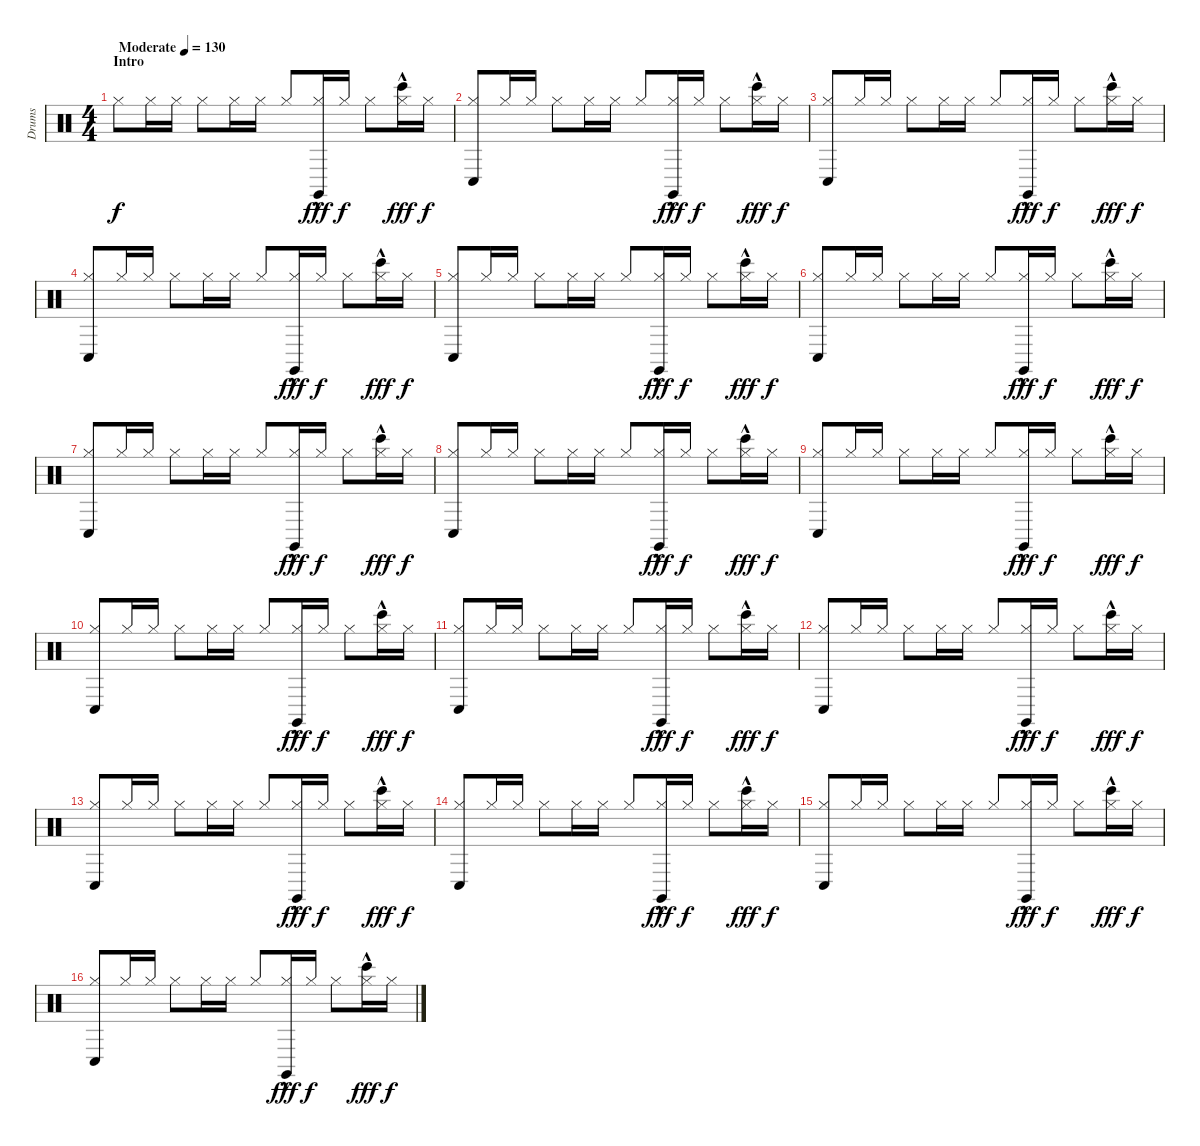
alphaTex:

\track ("Drums" "Drums") {instrument percussion}
\staff {score}
\articulation defaults
\ts (4 4)
\section ("" "Intro")
\tempo (130 "Moderate")
\clef neutral
\ks c "Hi-Hat (closed)".8{dy f volume 5} "Hi-Hat (closed)".16 "Hi-Hat (closed)".16 "Hi-Hat (closed)".8 "Hi-Hat (closed)".16 "Hi-Hat (closed)".16 "Hi-Hat (closed)".8
("Claves (hit)"{hac} "Hi-Hat (closed)").16{dy fff} "Hi-Hat (closed)".16{dy f} "Hi-Hat (closed)".8 ("Bongo High (hit)"{hac} "Hi-Hat (closed)").16{dy fff} "Hi-Hat (closed)".16{dy f} |
("Conga low (hit)" "Hi-Hat (closed)").8 "Hi-Hat (closed)".16 "Hi-Hat (closed)".16 "Hi-Hat (closed)".8 "Hi-Hat (closed)".16 "Hi-Hat (closed)".16 "Hi-Hat (closed)".8 ("Claves (hit)"{hac} "Hi-Hat (closed)").16{dy fff} "Hi-Hat (closed)".16{dy f} "Hi-Hat (closed)".8 ("Bongo High (hit)"{hac} "Hi-Hat (closed)").16{dy fff} "Hi-Hat (closed)".16{dy f} |
("Conga low (hit)" "Hi-Hat (closed)").8 "Hi-Hat (closed)".16 "Hi-Hat (closed)".16 "Hi-Hat (closed)".8 "Hi-Hat (closed)".16 "Hi-Hat (closed)".16 "Hi-Hat (closed)".8 ("Claves (hit)"{hac} "Hi-Hat (closed)").16{dy fff} "Hi-Hat (closed)".16{dy f} "Hi-Hat (closed)".8 ("Bongo High (hit)"{hac} "Hi-Hat (closed)").16{dy fff} "Hi-Hat (closed)".16{dy f} |
("Conga low (hit)" "Hi-Hat (closed)").8 "Hi-Hat (closed)".16 "Hi-Hat (closed)".16 "Hi-Hat (closed)".8 "Hi-Hat (closed)".16 "Hi-Hat (closed)".16 "Hi-Hat (closed)".8 ("Claves (hit)"{hac} "Hi-Hat (closed)").16{dy fff} "Hi-Hat (closed)".16{dy f} "Hi-Hat (closed)".8 ("Bongo High (hit)"{hac} "Hi-Hat (closed)").16{dy fff} "Hi-Hat (closed)".16{dy f} |
("Conga low (hit)" "Hi-Hat (closed)").8 "Hi-Hat (closed)".16 "Hi-Hat (closed)".16 "Hi-Hat (closed)".8 "Hi-Hat (closed)".16 "Hi-Hat (closed)".16 "Hi-Hat (closed)".8 ("Claves (hit)"{hac} "Hi-Hat (closed)").16{dy fff} "Hi-Hat (closed)".16{dy f} "Hi-Hat (closed)".8 ("Bongo High (hit)"{hac} "Hi-Hat (closed)").16{dy fff} "Hi-Hat (closed)".16{dy f} |
("Conga low (hit)" "Hi-Hat (closed)").8 "Hi-Hat (closed)".16 "Hi-Hat (closed)".16 "Hi-Hat (closed)".8 "Hi-Hat (closed)".16 "Hi-Hat (closed)".16 "Hi-Hat (closed)".8 ("Claves (hit)"{hac} "Hi-Hat (closed)").16{dy fff} "Hi-Hat (closed)".16{dy f} "Hi-Hat (closed)".8 ("Bongo High (hit)"{hac} "Hi-Hat (closed)").16{dy fff} "Hi-Hat (closed)".16{dy f} |
("Conga low (hit)" "Hi-Hat (closed)").8 "Hi-Hat (closed)".16 "Hi-Hat (closed)".16 "Hi-Hat (closed)".8 "Hi-Hat (closed)".16 "Hi-Hat (closed)".16 "Hi-Hat (closed)".8 ("Claves (hit)"{hac} "Hi-Hat (closed)").16{dy fff} "Hi-Hat (closed)".16{dy f} "Hi-Hat (closed)".8 ("Bongo High (hit)"{hac} "Hi-Hat (closed)").16{dy fff} "Hi-Hat (closed)".16{dy f} |
("Conga low (hit)" "Hi-Hat (closed)").8 "Hi-Hat (closed)".16 "Hi-Hat (closed)".16 "Hi-Hat (closed)".8 "Hi-Hat (closed)".16 "Hi-Hat (closed)".16 "Hi-Hat (closed)".8 ("Claves (hit)"{hac} "Hi-Hat (closed)").16{dy fff} "Hi-Hat (closed)".16{dy f} "Hi-Hat (closed)".8 ("Bongo High (hit)"{hac} "Hi-Hat (closed)").16{dy fff} "Hi-Hat (closed)".16{dy f} |
("Conga low (hit)" "Hi-Hat (closed)").8 "Hi-Hat (closed)".16 "Hi-Hat (closed)".16 "Hi-Hat (closed)".8 "Hi-Hat (closed)".16 "Hi-Hat (closed)".16 "Hi-Hat (closed)".8 ("Claves (hit)"{hac} "Hi-Hat (closed)").16{dy fff} "Hi-Hat (closed)".16{dy f} "Hi-Hat (closed)".8 ("Bongo High (hit)"{hac} "Hi-Hat (closed)").16{dy fff} "Hi-Hat (closed)".16{dy f} |
("Conga low (hit)" "Hi-Hat (closed)").8 "Hi-Hat (closed)".16 "Hi-Hat (closed)".16 "Hi-Hat (closed)".8 "Hi-Hat (closed)".16 "Hi-Hat (closed)".16 "Hi-Hat (closed)".8 ("Claves (hit)"{hac} "Hi-Hat (closed)").16{dy fff} "Hi-Hat (closed)".16{dy f} "Hi-Hat (closed)".8 ("Bongo High (hit)"{hac} "Hi-Hat (closed)").16{dy fff} "Hi-Hat (closed)".16{dy f} |
("Conga low (hit)" "Hi-Hat (closed)").8 "Hi-Hat (closed)".16 "Hi-Hat (closed)".16 "Hi-Hat (closed)".8 "Hi-Hat (closed)".16 "Hi-Hat (closed)".16 "Hi-Hat (closed)".8 ("Claves (hit)"{hac} "Hi-Hat (closed)").16{dy fff} "Hi-Hat (closed)".16{dy f} "Hi-Hat (closed)".8 ("Bongo High (hit)"{hac} "Hi-Hat (closed)").16{dy fff} "Hi-Hat (closed)".16{dy f} |
("Conga low (hit)" "Hi-Hat (closed)").8 "Hi-Hat (closed)".16 "Hi-Hat (closed)".16 "Hi-Hat (closed)".8 "Hi-Hat (closed)".16 "Hi-Hat (closed)".16 "Hi-Hat (closed)".8 ("Claves (hit)"{hac} "Hi-Hat (closed)").16{dy fff} "Hi-Hat (closed)".16{dy f} "Hi-Hat (closed)".8 ("Bongo High (hit)"{hac} "Hi-Hat (closed)").16{dy fff} "Hi-Hat (closed)".16{dy f} |
("Conga low (hit)" "Hi-Hat (closed)").8 "Hi-Hat (closed)".16 "Hi-Hat (closed)".16 "Hi-Hat (closed)".8 "Hi-Hat (closed)".16 "Hi-Hat (closed)".16 "Hi-Hat (closed)".8 ("Claves (hit)"{hac} "Hi-Hat (closed)").16{dy fff} "Hi-Hat (closed)".16{dy f} "Hi-Hat (closed)".8 ("Bongo High (hit)"{hac} "Hi-Hat (closed)").16{dy fff} "Hi-Hat (closed)".16{dy f} |
("Conga low (hit)" "Hi-Hat (closed)").8 "Hi-Hat (closed)".16 "Hi-Hat (closed)".16 "Hi-Hat (closed)".8 "Hi-Hat (closed)".16 "Hi-Hat (closed)".16 "Hi-Hat (closed)".8 ("Claves (hit)"{hac} "Hi-Hat (closed)").16{dy fff} "Hi-Hat (closed)".16{dy f} "Hi-Hat (closed)".8 ("Bongo High (hit)"{hac} "Hi-Hat (closed)").16{dy fff} "Hi-Hat (closed)".16{dy f} |
("Conga low (hit)" "Hi-Hat (closed)").8 "Hi-Hat (closed)".16 "Hi-Hat (closed)".16 "Hi-Hat (closed)".8 "Hi-Hat (closed)".16 "Hi-Hat (closed)".16 "Hi-Hat (closed)".8 ("Claves (hit)"{hac} "Hi-Hat (closed)").16{dy fff} "Hi-Hat (closed)".16{dy f} "Hi-Hat (closed)".8 ("Bongo High (hit)"{hac} "Hi-Hat (closed)").16{dy fff} "Hi-Hat (closed)".16{dy f} |
("Conga low (hit)" "Hi-Hat (closed)").8 "Hi-Hat (closed)".16 "Hi-Hat (closed)".16 "Hi-Hat (closed)".8 "Hi-Hat (closed)".16 "Hi-Hat (closed)".16 "Hi-Hat (closed)".8 ("Claves (hit)"{hac} "Hi-Hat (closed)").16{dy fff} "Hi-Hat (closed)".16{dy f} "Hi-Hat (closed)".8 ("Bongo High (hit)"{hac} "Hi-Hat (closed)").16{dy fff} "Hi-Hat (closed)".16{dy f}
